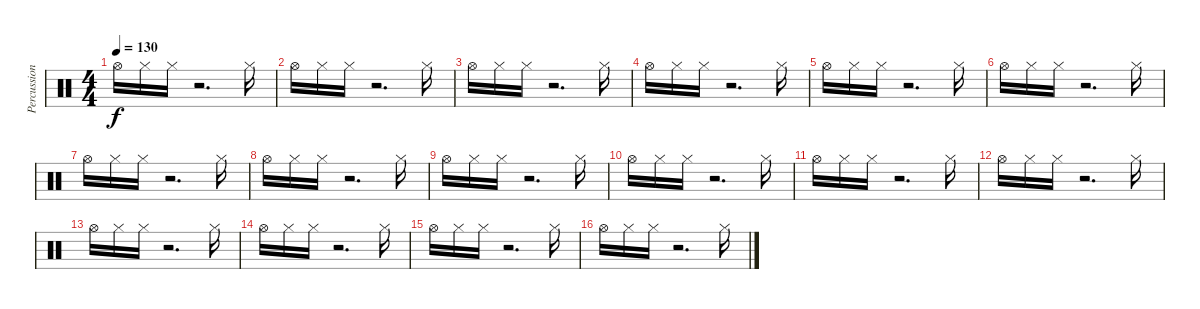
\track ("Percussion" "Percussion") {instrument percussion}
\staff {score}
\articulation defaults
\ts (4 4)
\tempo 130
\clef neutral
\ks c "Hi-Hat (open)".16{dy f} "Hi-Hat (closed)".16 "Hi-Hat (closed)".16
r.2{d} "Hi-Hat (closed)".16 |
"Hi-Hat (open)".16 "Hi-Hat (closed)".16 "Hi-Hat (closed)".16 r.2{d} "Hi-Hat (closed)".16 |
"Hi-Hat (open)".16 "Hi-Hat (closed)".16 "Hi-Hat (closed)".16 r.2{d} "Hi-Hat (closed)".16 |
"Hi-Hat (open)".16 "Hi-Hat (closed)".16 "Hi-Hat (closed)".16 r.2{d} "Hi-Hat (closed)".16 |
"Hi-Hat (open)".16 "Hi-Hat (closed)".16 "Hi-Hat (closed)".16 r.2{d} "Hi-Hat (closed)".16 |
"Hi-Hat (open)".16 "Hi-Hat (closed)".16 "Hi-Hat (closed)".16 r.2{d} "Hi-Hat (closed)".16 |
"Hi-Hat (open)".16 "Hi-Hat (closed)".16 "Hi-Hat (closed)".16 r.2{d} "Hi-Hat (closed)".16 |
"Hi-Hat (open)".16 "Hi-Hat (closed)".16 "Hi-Hat (closed)".16 r.2{d} "Hi-Hat (closed)".16 |
"Hi-Hat (open)".16 "Hi-Hat (closed)".16 "Hi-Hat (closed)".16 r.2{d} "Hi-Hat (closed)".16 |
"Hi-Hat (open)".16 "Hi-Hat (closed)".16 "Hi-Hat (closed)".16 r.2{d} "Hi-Hat (closed)".16 |
"Hi-Hat (open)".16 "Hi-Hat (closed)".16 "Hi-Hat (closed)".16 r.2{d} "Hi-Hat (closed)".16 |
"Hi-Hat (open)".16 "Hi-Hat (closed)".16 "Hi-Hat (closed)".16 r.2{d} "Hi-Hat (closed)".16 |
"Hi-Hat (open)".16 "Hi-Hat (closed)".16 "Hi-Hat (closed)".16 r.2{d} "Hi-Hat (closed)".16 |
"Hi-Hat (open)".16 "Hi-Hat (closed)".16 "Hi-Hat (closed)".16 r.2{d} "Hi-Hat (closed)".16 |
"Hi-Hat (open)".16 "Hi-Hat (closed)".16 "Hi-Hat (closed)".16 r.2{d} "Hi-Hat (closed)".16 |
"Hi-Hat (open)".16 "Hi-Hat (closed)".16 "Hi-Hat (closed)".16 r.2{d} "Hi-Hat (closed)".16
